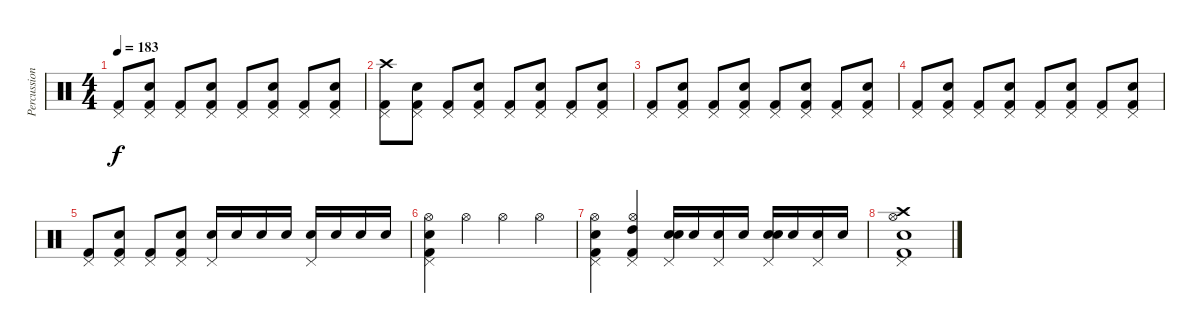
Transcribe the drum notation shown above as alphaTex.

\track ("Percussion" "Percussion") {instrument percussion}
\staff {score}
\articulation defaults
\ts (4 4)
\tempo 183
\clef neutral
\ks c
("Kick (hit) 2" "Pedal Hi-Hat (hit)").8{dy f} ("Kick (hit) 2" "Snare (hit) 2" "Pedal Hi-Hat (hit)").8 ("Kick (hit) 2" "Pedal Hi-Hat (hit)").8 ("Kick (hit) 2" "Snare (hit) 2" "Pedal Hi-Hat (hit)").8 ("Kick (hit) 2" "Pedal Hi-Hat (hit)").8 ("Kick (hit) 2" "Snare (hit) 2" "Pedal Hi-Hat (hit)").8 ("Kick (hit) 2" "Pedal Hi-Hat (hit)").8 ("Kick (hit) 2" "Snare (hit) 2" "Pedal Hi-Hat (hit)").8 |
("Kick (hit) 2" "Pedal Hi-Hat (hit)" "Crash high (hit)").8 ("Kick (hit) 2" "Snare (hit) 2" "Pedal Hi-Hat (hit)").8 ("Kick (hit) 2" "Pedal Hi-Hat (hit)").8 ("Kick (hit) 2" "Snare (hit) 2" "Pedal Hi-Hat (hit)").8 ("Kick (hit) 2" "Pedal Hi-Hat (hit)").8 ("Kick (hit) 2" "Snare (hit) 2" "Pedal Hi-Hat (hit)").8 ("Kick (hit) 2" "Pedal Hi-Hat (hit)").8 ("Kick (hit) 2" "Snare (hit) 2" "Pedal Hi-Hat (hit)").8 |
("Kick (hit) 2" "Pedal Hi-Hat (hit)").8 ("Kick (hit) 2" "Snare (hit) 2" "Pedal Hi-Hat (hit)").8 ("Kick (hit) 2" "Pedal Hi-Hat (hit)").8 ("Kick (hit) 2" "Snare (hit) 2" "Pedal Hi-Hat (hit)").8 ("Kick (hit) 2" "Pedal Hi-Hat (hit)").8 ("Kick (hit) 2" "Snare (hit) 2" "Pedal Hi-Hat (hit)").8 ("Kick (hit) 2" "Pedal Hi-Hat (hit)").8 ("Kick (hit) 2" "Snare (hit) 2" "Pedal Hi-Hat (hit)").8 |
("Kick (hit) 2" "Pedal Hi-Hat (hit)").8 ("Kick (hit) 2" "Snare (hit) 2" "Pedal Hi-Hat (hit)").8 ("Kick (hit) 2" "Pedal Hi-Hat (hit)").8 ("Kick (hit) 2" "Snare (hit) 2" "Pedal Hi-Hat (hit)").8 ("Kick (hit) 2" "Pedal Hi-Hat (hit)").8 ("Kick (hit) 2" "Snare (hit) 2" "Pedal Hi-Hat (hit)").8 ("Kick (hit) 2" "Pedal Hi-Hat (hit)").8 ("Kick (hit) 2" "Snare (hit) 2" "Pedal Hi-Hat (hit)").8 |
("Kick (hit) 2" "Pedal Hi-Hat (hit)").8 ("Kick (hit) 2" "Snare (hit) 2" "Pedal Hi-Hat (hit)").8 ("Kick (hit) 2" "Pedal Hi-Hat (hit)").8 ("Kick (hit) 2" "Snare (hit) 2" "Pedal Hi-Hat (hit)").8 ("Pedal Hi-Hat (hit)" "Snare (hit) 2").16 "Snare (hit) 2".16 "Snare (hit) 2".16 "Snare (hit) 2".16 ("Pedal Hi-Hat (hit)" "Snare (hit) 2").16 "Snare (hit) 2".16 "Snare (hit) 2".16 "Snare (hit) 2".16 |
("Pedal Hi-Hat (hit)" "Snare (hit) 2" "Kick (hit) 2" "Hi-Hat (open)").4 "Hi-Hat (open)".4 "Hi-Hat (open)".4 "Hi-Hat (open)".4 |
("Pedal Hi-Hat (hit)" "Snare (hit) 2" "Kick (hit) 2" "Hi-Hat (open)").4 ("Pedal Hi-Hat (hit)" "High Tom (hit)" "Kick (hit) 2" "Hi-Hat (open)").4 ("Snare (hit) 2" "Snare (hit) 2" "Pedal Hi-Hat (hit)").16 "Snare (hit) 2".16 ("Snare (hit) 2" "Pedal Hi-Hat (hit)").16 "Snare (hit) 2".16 ("Snare (hit) 2" "Snare (hit) 2" "Pedal Hi-Hat (hit)").16 "Snare (hit) 2".16 ("Snare (hit) 2" "Pedal Hi-Hat (hit)").16 "Snare (hit) 2".16 |
("Pedal Hi-Hat (hit)" "Snare (hit) 2" "Kick (hit) 2" "Hi-Hat (open)" "Crash high (hit)").1
